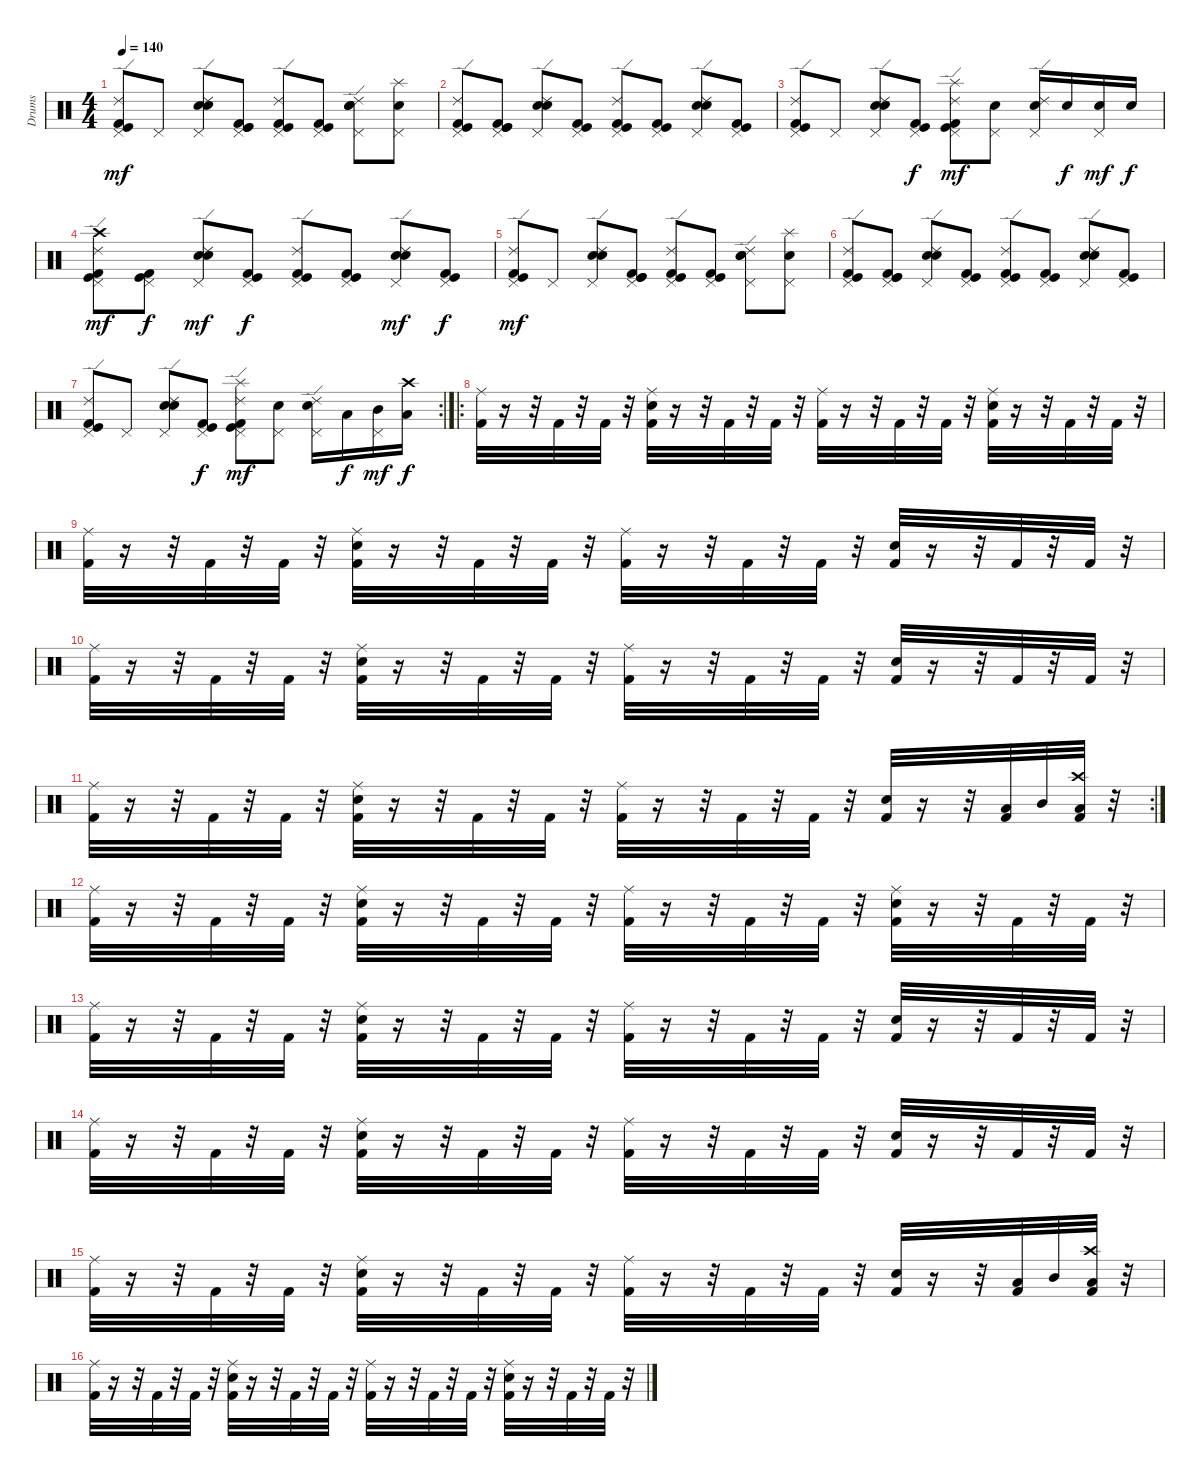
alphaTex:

\track ("Drums" "Drums") {instrument percussion}
\staff {score}
\articulation defaults
\ts (4 4)
\tempo 140
\clef neutral
\ks c
("Pedal Hi-Hat (hit)" "Ride (edge) 2" "Kick (hit)" "Kick (hit) 2").8{dy mf} "Pedal Hi-Hat (hit)".8 ("Pedal Hi-Hat (hit)" "Ride (edge) 2" "Snare (hit) 2" "Snare (hit) 2").8 ("Pedal Hi-Hat (hit)" "Kick (hit)" "Kick (hit)" "Kick (hit) 2").8 ("Pedal Hi-Hat (hit)" "Ride (edge) 2" "Kick (hit)" "Kick (hit) 2").8 ("Pedal Hi-Hat (hit)" "Kick (hit)" "Kick (hit) 2").8 ("Pedal Hi-Hat (hit)" "Ride (edge) 2" "Snare (hit) 2" "Snare (hit) 2").8 ("Pedal Hi-Hat (hit)" "Snare (hit) 2" "Splash (hit)").8 |
("Pedal Hi-Hat (hit)" "Ride (edge) 2" "Kick (hit)" "Kick (hit) 2").8 ("Pedal Hi-Hat (hit)" "Kick (hit)" "Kick (hit)" "Kick (hit) 2").8 ("Pedal Hi-Hat (hit)" "Ride (edge) 2" "Snare (hit) 2" "Snare (hit) 2").8 ("Pedal Hi-Hat (hit)" "Kick (hit)" "Kick (hit) 2").8 ("Pedal Hi-Hat (hit)" "Ride (edge) 2" "Kick (hit)" "Kick (hit) 2").8 ("Pedal Hi-Hat (hit)" "Kick (hit)" "Kick (hit) 2").8 ("Pedal Hi-Hat (hit)" "Ride (edge) 2" "Snare (hit) 2" "Snare (hit) 2").8 ("Pedal Hi-Hat (hit)" "Kick (hit)" "Kick (hit) 2").8 |
("Ride (edge) 2" "Pedal Hi-Hat (hit)" "Kick (hit)" "Kick (hit) 2").8 "Pedal Hi-Hat (hit)".8 ("Pedal Hi-Hat (hit)" "Snare (hit) 2" "Ride (edge) 2" "Snare (hit) 2").8 ("Pedal Hi-Hat (hit)" "Kick (hit)" "Kick (hit) 2").8{dy f} ("Pedal Hi-Hat (hit)" "Splash (hit)" "Ride (edge) 2" "Kick (hit)" "Kick (hit) 2").8{dy mf} ("Pedal Hi-Hat (hit)" "Snare (hit) 2").8 ("Pedal Hi-Hat (hit)" "Snare (hit) 2" "Ride (edge) 2").16 "Snare (hit) 2".16{dy f} ("Pedal Hi-Hat (hit)" "Snare (hit) 2").16{dy mf} "Snare (hit) 2".16{dy f} |
("Pedal Hi-Hat (hit)" "Crash high (hit)" "Ride (edge) 2" "Kick (hit)" "Kick (hit) 2").8{dy mf} ("Pedal Hi-Hat (hit)" "Kick (hit)" "Kick (hit) 2").8{dy f} ("Pedal Hi-Hat (hit)" "Snare (hit) 2" "Snare (hit) 2" "Ride (edge) 2").8{dy mf} ("Pedal Hi-Hat (hit)" "Kick (hit)" "Kick (hit) 2").8{dy f} ("Pedal Hi-Hat (hit)" "Ride (edge) 2" "Kick (hit)" "Kick (hit) 2").8 ("Pedal Hi-Hat (hit)" "Kick (hit)" "Kick (hit) 2").8 ("Pedal Hi-Hat (hit)" "Snare (hit) 2" "Snare (hit) 2" "Ride (edge) 2").8{dy mf} ("Pedal Hi-Hat (hit)" "Kick (hit)" "Kick (hit) 2").8{dy f} |
("Pedal Hi-Hat (hit)" "Ride (edge) 2" "Kick (hit)" "Kick (hit) 2").8{dy mf} "Pedal Hi-Hat (hit)".8 ("Pedal Hi-Hat (hit)" "Ride (edge) 2" "Snare (hit) 2" "Snare (hit) 2").8 ("Pedal Hi-Hat (hit)" "Kick (hit)" "Kick (hit)" "Kick (hit) 2").8 ("Pedal Hi-Hat (hit)" "Ride (edge) 2" "Kick (hit)" "Kick (hit) 2").8 ("Pedal Hi-Hat (hit)" "Kick (hit)" "Kick (hit) 2").8 ("Pedal Hi-Hat (hit)" "Ride (edge) 2" "Snare (hit) 2" "Snare (hit) 2").8 ("Pedal Hi-Hat (hit)" "Snare (hit) 2" "Splash (hit)").8 |
("Pedal Hi-Hat (hit)" "Ride (edge) 2" "Kick (hit)" "Kick (hit) 2").8 ("Pedal Hi-Hat (hit)" "Kick (hit)" "Kick (hit)" "Kick (hit) 2").8 ("Pedal Hi-Hat (hit)" "Ride (edge) 2" "Snare (hit) 2" "Snare (hit) 2").8 ("Pedal Hi-Hat (hit)" "Kick (hit)" "Kick (hit) 2").8 ("Pedal Hi-Hat (hit)" "Ride (edge) 2" "Kick (hit)" "Kick (hit) 2").8 ("Pedal Hi-Hat (hit)" "Kick (hit)" "Kick (hit) 2").8 ("Pedal Hi-Hat (hit)" "Ride (edge) 2" "Snare (hit) 2" "Snare (hit) 2").8 ("Pedal Hi-Hat (hit)" "Kick (hit)" "Kick (hit) 2").8 |
\rc 2
("Ride (edge) 2" "Pedal Hi-Hat (hit)" "Kick (hit)" "Kick (hit) 2").8 "Pedal Hi-Hat (hit)".8 ("Pedal Hi-Hat (hit)" "Snare (hit) 2" "Ride (edge) 2" "Snare (hit) 2").8 ("Pedal Hi-Hat (hit)" "Kick (hit)" "Kick (hit) 2").8{dy f} ("Pedal Hi-Hat (hit)" "Splash (hit)" "Ride (edge) 2" "Kick (hit)" "Kick (hit) 2").8{dy mf} ("Pedal Hi-Hat (hit)" "Snare (hit) 2").8 ("Pedal Hi-Hat (hit)" "Snare (hit) 2" "Ride (edge) 2").16 "Low Tom (hit)".16{dy f} ("Pedal Hi-Hat (hit)" "Mid Tom (hit)").16{dy mf} ("Crash high (hit)" "Low Tom (hit)").16{dy f} |
\ro
("Kick (hit) 2" "Ride (middle)").32 r.16 r.32 "Kick (hit) 2".32 r.32 "Kick (hit) 2".32 r.32 ("Ride (middle)" "Snare (hit) 2" "Kick (hit) 2").32 r.16 r.32 "Kick (hit) 2".32 r.32 "Kick (hit) 2".32 r.32 ("Kick (hit) 2" "Ride (middle)").32 r.16 r.32 "Kick (hit) 2".32 r.32 "Kick (hit) 2".32 r.32 ("Snare (hit) 2" "Ride (middle)" "Kick (hit) 2").32 r.16 r.32 "Kick (hit) 2".32 r.32 "Kick (hit) 2".32 r.32 |
("Kick (hit) 2" "Ride (middle)").32 r.16 r.32 "Kick (hit) 2".32 r.32 "Kick (hit) 2".32 r.32 ("Ride (middle)" "Snare (hit) 2" "Kick (hit) 2").32 r.16 r.32 "Kick (hit) 2".32 r.32 "Kick (hit) 2".32 r.32 ("Kick (hit) 2" "Ride (middle)").32 r.16 r.32 "Kick (hit) 2".32 r.32 "Kick (hit) 2".32 r.32 ("Snare (hit) 2" "Kick (hit) 2").32 r.16 r.32 "Kick (hit) 2".32 r.32 "Kick (hit) 2".32 r.32 |
("Kick (hit) 2" "Ride (middle)").32 r.16 r.32 "Kick (hit) 2".32 r.32 "Kick (hit) 2".32 r.32 ("Ride (middle)" "Snare (hit) 2" "Kick (hit) 2").32 r.16 r.32 "Kick (hit) 2".32 r.32 "Kick (hit) 2".32 r.32 ("Kick (hit) 2" "Ride (middle)").32 r.16 r.32 "Kick (hit) 2".32 r.32 "Kick (hit) 2".32 r.32 ("Snare (hit) 2" "Kick (hit) 2").32 r.16 r.32 "Kick (hit) 2".32 r.32 "Kick (hit) 2".32 r.32 |
\rc 2
("Kick (hit) 2" "Ride (middle)").32 r.16 r.32 "Kick (hit) 2".32 r.32 "Kick (hit) 2".32 r.32 ("Ride (middle)" "Snare (hit) 2" "Kick (hit) 2").32 r.16 r.32 "Kick (hit) 2".32 r.32 "Kick (hit) 2".32 r.32 ("Kick (hit) 2" "Ride (middle)").32 r.16 r.32 "Kick (hit) 2".32 r.32 "Kick (hit) 2".32 r.32 ("Snare (hit) 2" "Kick (hit) 2").32 r.16 r.32 ("Kick (hit) 2" "Low Tom (hit)").32 "Mid Tom (hit)".32 ("Kick (hit) 2" "Crash high (hit)" "Low Tom (hit)").32 r.32 |
("Kick (hit) 2" "Ride (middle)").32 r.16 r.32 "Kick (hit) 2".32 r.32 "Kick (hit) 2".32 r.32 ("Ride (middle)" "Snare (hit) 2" "Kick (hit) 2").32 r.16 r.32 "Kick (hit) 2".32 r.32 "Kick (hit) 2".32 r.32 ("Kick (hit) 2" "Ride (middle)").32 r.16 r.32 "Kick (hit) 2".32 r.32 "Kick (hit) 2".32 r.32 ("Snare (hit) 2" "Ride (middle)" "Kick (hit) 2").32 r.16 r.32 "Kick (hit) 2".32 r.32 "Kick (hit) 2".32 r.32 |
("Kick (hit) 2" "Ride (middle)").32 r.16 r.32 "Kick (hit) 2".32 r.32 "Kick (hit) 2".32 r.32 ("Ride (middle)" "Snare (hit) 2" "Kick (hit) 2").32 r.16 r.32 "Kick (hit) 2".32 r.32 "Kick (hit) 2".32 r.32 ("Kick (hit) 2" "Ride (middle)").32 r.16 r.32 "Kick (hit) 2".32 r.32 "Kick (hit) 2".32 r.32 ("Snare (hit) 2" "Kick (hit) 2").32 r.16 r.32 "Kick (hit) 2".32 r.32 "Kick (hit) 2".32 r.32 |
("Kick (hit) 2" "Ride (middle)").32 r.16 r.32 "Kick (hit) 2".32 r.32 "Kick (hit) 2".32 r.32 ("Ride (middle)" "Snare (hit) 2" "Kick (hit) 2").32 r.16 r.32 "Kick (hit) 2".32 r.32 "Kick (hit) 2".32 r.32 ("Kick (hit) 2" "Ride (middle)").32 r.16 r.32 "Kick (hit) 2".32 r.32 "Kick (hit) 2".32 r.32 ("Snare (hit) 2" "Kick (hit) 2").32 r.16 r.32 "Kick (hit) 2".32 r.32 "Kick (hit) 2".32 r.32 |
("Kick (hit) 2" "Ride (middle)").32 r.16 r.32 "Kick (hit) 2".32 r.32 "Kick (hit) 2".32 r.32 ("Ride (middle)" "Snare (hit) 2" "Kick (hit) 2").32 r.16 r.32 "Kick (hit) 2".32 r.32 "Kick (hit) 2".32 r.32 ("Kick (hit) 2" "Ride (middle)").32 r.16 r.32 "Kick (hit) 2".32 r.32 "Kick (hit) 2".32 r.32 ("Snare (hit) 2" "Kick (hit) 2").32 r.16 r.32 ("Kick (hit) 2" "Low Tom (hit)").32 "Mid Tom (hit)".32 ("Kick (hit) 2" "Crash high (hit)" "Low Tom (hit)").32 r.32 |
("Kick (hit) 2" "Ride (middle)").32 r.16 r.32 "Kick (hit) 2".32 r.32 "Kick (hit) 2".32 r.32 ("Ride (middle)" "Snare (hit) 2" "Kick (hit) 2").32 r.16 r.32 "Kick (hit) 2".32 r.32 "Kick (hit) 2".32 r.32 ("Kick (hit) 2" "Ride (middle)").32 r.16 r.32 "Kick (hit) 2".32 r.32 "Kick (hit) 2".32 r.32 ("Snare (hit) 2" "Ride (middle)" "Kick (hit) 2").32 r.16 r.32 "Kick (hit) 2".32 r.32 "Kick (hit) 2".32 r.32
